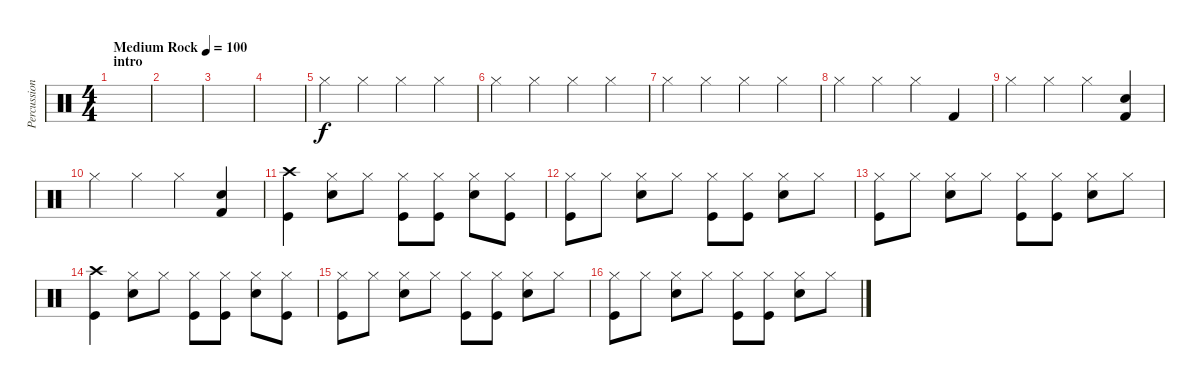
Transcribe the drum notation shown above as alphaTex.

\track ("Percussioni" "Percussion") {instrument percussion}
\staff {score}
\articulation defaults
\ts (4 4)
\section ("" "intro")
\tempo (100 "Medium Rock")
\clef neutral
\ks c
|
|
|
|
"Hi-Hat (closed)".4{beam Down} "Hi-Hat (closed)".4 "Hi-Hat (closed)".4 "Hi-Hat (closed)".4 |
"Hi-Hat (closed)".4 "Hi-Hat (closed)".4 "Hi-Hat (closed)".4 "Hi-Hat (closed)".4 |
"Hi-Hat (closed)".4 "Hi-Hat (closed)".4 "Hi-Hat (closed)".4 "Hi-Hat (closed)".4 |
"Hi-Hat (closed)".4 "Hi-Hat (closed)".4 "Hi-Hat (closed)".4 "Kick (hit) 2".4 |
"Hi-Hat (closed)".4 "Hi-Hat (closed)".4 "Hi-Hat (closed)".4 ("Kick (hit) 2" "Snare (hit) 2").4 |
"Hi-Hat (closed)".4 "Hi-Hat (closed)".4 "Hi-Hat (closed)".4 ("Kick (hit) 2" "Snare (hit) 2").4 |
("Crash high (hit)" "Kick (hit)").4 ("Hi-Hat (closed)" "Snare (hit) 2").8 "Hi-Hat (closed)".8 ("Hi-Hat (closed)" "Kick (hit)").8 ("Hi-Hat (closed)" "Kick (hit)").8 ("Hi-Hat (closed)" "Snare (hit) 2").8 ("Hi-Hat (closed)" "Kick (hit)").8 |
("Hi-Hat (closed)" "Kick (hit)").8 "Hi-Hat (closed)".8 ("Hi-Hat (closed)" "Snare (hit) 2").8 "Hi-Hat (closed)".8 ("Hi-Hat (closed)" "Kick (hit)").8 ("Hi-Hat (closed)" "Kick (hit)").8 ("Hi-Hat (closed)" "Snare (hit) 2").8 "Hi-Hat (closed)".8 |
("Hi-Hat (closed)" "Kick (hit)").8 "Hi-Hat (closed)".8 ("Hi-Hat (closed)" "Snare (hit) 2").8 "Hi-Hat (closed)".8 ("Hi-Hat (closed)" "Kick (hit)").8 ("Hi-Hat (closed)" "Kick (hit)").8 ("Hi-Hat (closed)" "Snare (hit) 2").8 "Hi-Hat (closed)".8 |
("Crash high (hit)" "Kick (hit)").4 ("Hi-Hat (closed)" "Snare (hit) 2").8 "Hi-Hat (closed)".8 ("Hi-Hat (closed)" "Kick (hit)").8 ("Hi-Hat (closed)" "Kick (hit)").8 ("Hi-Hat (closed)" "Snare (hit) 2").8 ("Hi-Hat (closed)" "Kick (hit)").8 |
("Hi-Hat (closed)" "Kick (hit)").8 "Hi-Hat (closed)".8 ("Hi-Hat (closed)" "Snare (hit) 2").8 "Hi-Hat (closed)".8 ("Hi-Hat (closed)" "Kick (hit)").8 ("Hi-Hat (closed)" "Kick (hit)").8 ("Hi-Hat (closed)" "Snare (hit) 2").8 "Hi-Hat (closed)".8 |
("Hi-Hat (closed)" "Kick (hit)").8 "Hi-Hat (closed)".8 ("Hi-Hat (closed)" "Snare (hit) 2").8 "Hi-Hat (closed)".8 ("Hi-Hat (closed)" "Kick (hit)").8 ("Hi-Hat (closed)" "Kick (hit)").8 ("Hi-Hat (closed)" "Snare (hit) 2").8 "Hi-Hat (closed)".8
